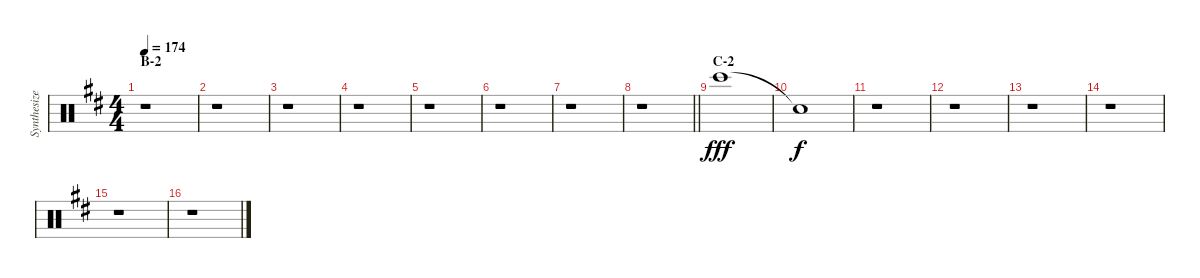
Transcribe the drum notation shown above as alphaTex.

\track ("Synthesized Slap" "Synthesize") {instrument percussion}
\staff {score}
\articulation defaults
\ts (4 4)
\section ("" "B-2")
\tempo 174
\clef neutral
\ks bminor
r.1{dy f} |
r.1 |
r.1 |
r.1 |
r.1 |
r.1 |
r.1 |
\barLineRight lightlight
r.1 |
\section ("" "C-2")
"Bongo High (hit)".1{dy fff} |
"Snare (hit)"{t}.1{dy f} |
r.1 |
r.1 |
r.1 |
r.1 |
r.1 |
r.1
